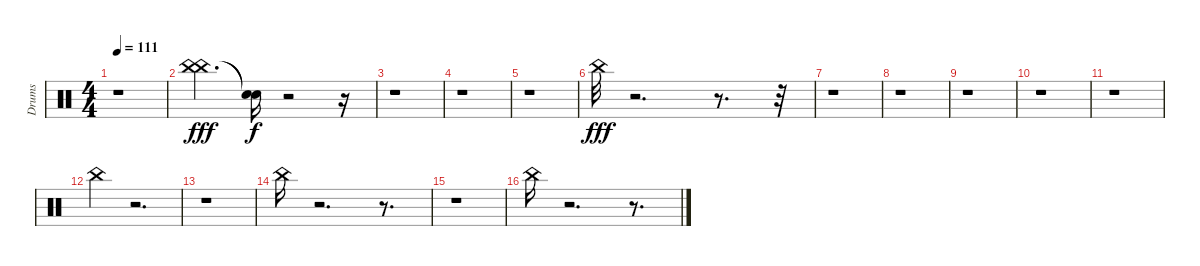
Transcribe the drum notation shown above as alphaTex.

\track ("Drums" "Drums") {instrument percussion}
\staff {score}
\articulation defaults
\ts (4 4)
\tempo 111
\clef neutral
\ks c
r.1{dy fff} |
("China (hit)" "China (hit)").4{d} ("Snare (hit)"{t} "Snare (hit)"{t}).16{dy f} r.2 r.16 |
r.1 |
r.1 |
r.1 |
"China (hit)".32{dy fff} r.2{d} r.8{d} r.32 |
r.1 |
r.1 |
r.1 |
r.1 |
r.1 |
"China (hit)".4 r.2{d} |
r.1 |
"China (hit)".16 r.2{d} r.8{d} |
r.1 |
"China (hit)".16 r.2{d} r.8{d}
